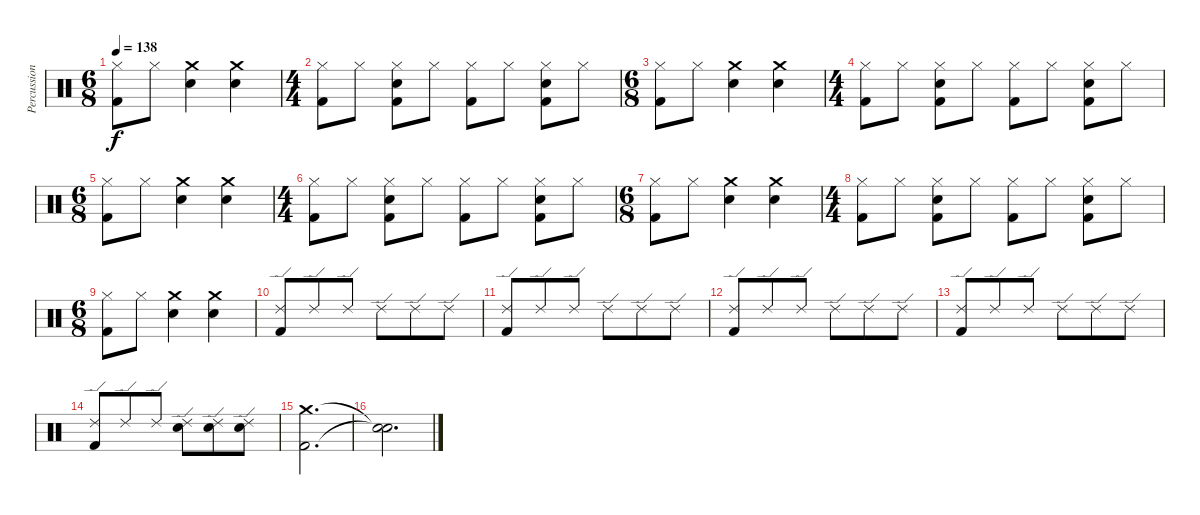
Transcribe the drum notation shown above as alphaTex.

\track ("Percussion" "Percussion") {instrument percussion}
\staff {score}
\articulation defaults
\ts (6 8)
\tempo 138
\clef neutral
\ks c
("Hi-Hat (closed)" "Kick (hit) 2").8{dy f} "Hi-Hat (closed)".8 ("Crash medium (hit)" "Snare (hit) 2").4 ("Crash medium (hit)" "Snare (hit) 2").4 |
\ts (4 4)
("Hi-Hat (closed)" "Kick (hit) 2").8 "Hi-Hat (closed)".8 ("Hi-Hat (closed)" "Snare (hit) 2" "Kick (hit) 2").8 "Hi-Hat (closed)".8 ("Hi-Hat (closed)" "Kick (hit) 2").8 "Hi-Hat (closed)".8 ("Hi-Hat (closed)" "Snare (hit) 2" "Kick (hit) 2").8 "Hi-Hat (closed)".8 |
\ts (6 8)
("Hi-Hat (closed)" "Kick (hit) 2").8 "Hi-Hat (closed)".8 ("Crash medium (hit)" "Snare (hit) 2").4 ("Crash medium (hit)" "Snare (hit) 2").4 |
\ts (4 4)
("Hi-Hat (closed)" "Kick (hit) 2").8 "Hi-Hat (closed)".8 ("Hi-Hat (closed)" "Snare (hit) 2" "Kick (hit) 2").8 "Hi-Hat (closed)".8 ("Hi-Hat (closed)" "Kick (hit) 2").8 "Hi-Hat (closed)".8 ("Hi-Hat (closed)" "Snare (hit) 2" "Kick (hit) 2").8 "Hi-Hat (closed)".8 |
\ts (6 8)
("Hi-Hat (closed)" "Kick (hit) 2").8 "Hi-Hat (closed)".8 ("Crash medium (hit)" "Snare (hit) 2").4 ("Crash medium (hit)" "Snare (hit) 2").4 |
\ts (4 4)
("Hi-Hat (closed)" "Kick (hit) 2").8 "Hi-Hat (closed)".8 ("Hi-Hat (closed)" "Snare (hit) 2" "Kick (hit) 2").8 "Hi-Hat (closed)".8 ("Hi-Hat (closed)" "Kick (hit) 2").8 "Hi-Hat (closed)".8 ("Hi-Hat (closed)" "Snare (hit) 2" "Kick (hit) 2").8 "Hi-Hat (closed)".8 |
\ts (6 8)
("Hi-Hat (closed)" "Kick (hit) 2").8 "Hi-Hat (closed)".8 ("Crash medium (hit)" "Snare (hit) 2").4 ("Crash medium (hit)" "Snare (hit) 2").4 |
\ts (4 4)
("Hi-Hat (closed)" "Kick (hit) 2").8 "Hi-Hat (closed)".8 ("Hi-Hat (closed)" "Snare (hit) 2" "Kick (hit) 2").8 "Hi-Hat (closed)".8 ("Hi-Hat (closed)" "Kick (hit) 2").8 "Hi-Hat (closed)".8 ("Hi-Hat (closed)" "Snare (hit) 2" "Kick (hit) 2").8 "Hi-Hat (closed)".8 |
\ts (6 8)
("Hi-Hat (closed)" "Kick (hit) 2").8 "Hi-Hat (closed)".8 ("Crash medium (hit)" "Snare (hit) 2").4 ("Crash medium (hit)" "Snare (hit) 2").4 |
("Ride (edge) 2" "Kick (hit) 2").8 "Ride (edge) 2".8 "Ride (edge) 2".8 "Ride (edge) 2".8 "Ride (edge) 2".8 "Ride (edge) 2".8 |
("Ride (edge) 2" "Kick (hit) 2").8 "Ride (edge) 2".8 "Ride (edge) 2".8 "Ride (edge) 2".8 "Ride (edge) 2".8 "Ride (edge) 2".8 |
("Ride (edge) 2" "Kick (hit) 2").8 "Ride (edge) 2".8 "Ride (edge) 2".8 "Ride (edge) 2".8 "Ride (edge) 2".8 "Ride (edge) 2".8 |
("Ride (edge) 2" "Kick (hit) 2").8 "Ride (edge) 2".8 "Ride (edge) 2".8 "Ride (edge) 2".8 "Ride (edge) 2".8 "Ride (edge) 2".8 |
("Ride (edge) 2" "Kick (hit) 2").8 "Ride (edge) 2".8 "Ride (edge) 2".8 ("Ride (edge) 2" "Snare (hit) 2").8 ("Ride (edge) 2" "Snare (hit) 2").8 ("Ride (edge) 2" "Snare (hit) 2").8 |
("Crash medium (hit)" "Kick (hit) 2").2{d} |
("Snare (hit)"{t} "Snare (hit)"{t}).2{d}
